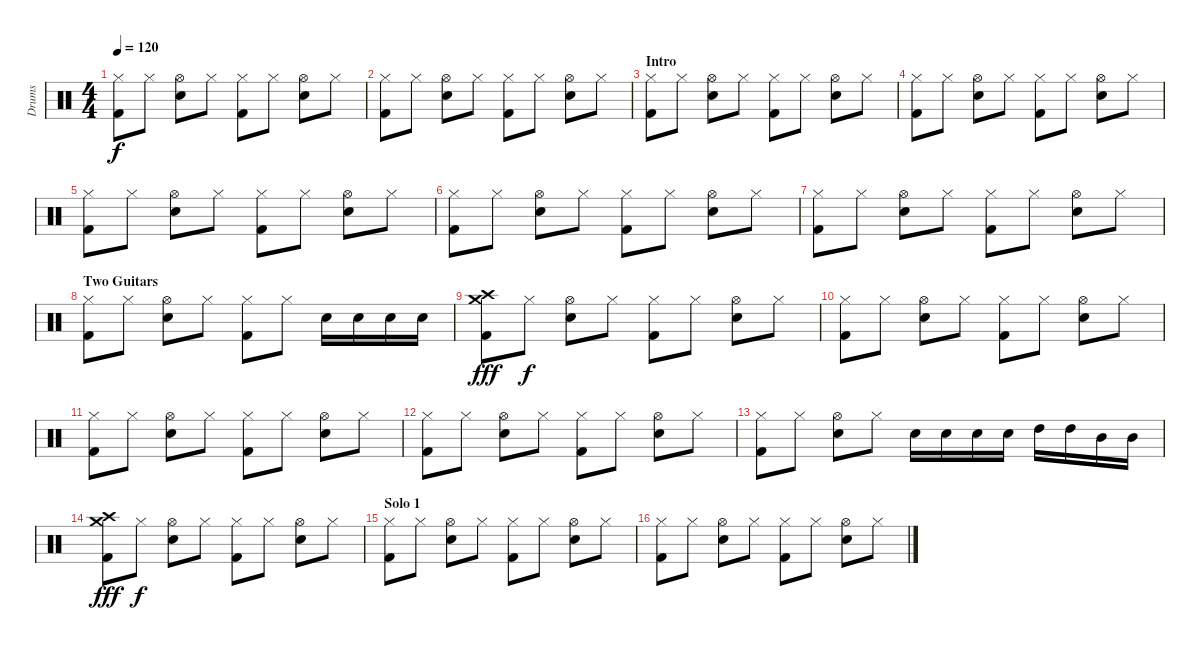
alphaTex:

\track ("Drums" "Drums") {instrument percussion}
\staff {score}
\articulation defaults
\ts (4 4)
\tempo 120
\clef neutral
\ks c
("Hi-Hat (closed)" "Kick (hit) 2").8{dy f} "Hi-Hat (closed)".8 ("Hi-Hat (open)" "Snare (hit) 2").8 "Hi-Hat (closed)".8 ("Hi-Hat (closed)" "Kick (hit) 2").8 "Hi-Hat (closed)".8 ("Hi-Hat (open)" "Snare (hit) 2").8 "Hi-Hat (closed)".8 |
("Hi-Hat (closed)" "Kick (hit) 2").8 "Hi-Hat (closed)".8 ("Hi-Hat (open)" "Snare (hit) 2").8 "Hi-Hat (closed)".8 ("Hi-Hat (closed)" "Kick (hit) 2").8 "Hi-Hat (closed)".8 ("Hi-Hat (open)" "Snare (hit) 2").8 "Hi-Hat (closed)".8 |
\section ("" "Intro")
("Hi-Hat (closed)" "Kick (hit) 2").8 "Hi-Hat (closed)".8 ("Hi-Hat (open)" "Snare (hit) 2").8 "Hi-Hat (closed)".8 ("Hi-Hat (closed)" "Kick (hit) 2").8 "Hi-Hat (closed)".8 ("Hi-Hat (open)" "Snare (hit) 2").8 "Hi-Hat (closed)".8 |
("Hi-Hat (closed)" "Kick (hit) 2").8 "Hi-Hat (closed)".8 ("Hi-Hat (open)" "Snare (hit) 2").8 "Hi-Hat (closed)".8 ("Hi-Hat (closed)" "Kick (hit) 2").8 "Hi-Hat (closed)".8 ("Hi-Hat (open)" "Snare (hit) 2").8 "Hi-Hat (closed)".8 |
("Hi-Hat (closed)" "Kick (hit) 2").8 "Hi-Hat (closed)".8 ("Hi-Hat (open)" "Snare (hit) 2").8 "Hi-Hat (closed)".8 ("Hi-Hat (closed)" "Kick (hit) 2").8 "Hi-Hat (closed)".8 ("Hi-Hat (open)" "Snare (hit) 2").8 "Hi-Hat (closed)".8 |
("Hi-Hat (closed)" "Kick (hit) 2").8 "Hi-Hat (closed)".8 ("Hi-Hat (open)" "Snare (hit) 2").8 "Hi-Hat (closed)".8 ("Hi-Hat (closed)" "Kick (hit) 2").8 "Hi-Hat (closed)".8 ("Hi-Hat (open)" "Snare (hit) 2").8 "Hi-Hat (closed)".8 |
("Hi-Hat (closed)" "Kick (hit) 2").8 "Hi-Hat (closed)".8 ("Hi-Hat (open)" "Snare (hit) 2").8 "Hi-Hat (closed)".8 ("Hi-Hat (closed)" "Kick (hit) 2").8 "Hi-Hat (closed)".8 ("Hi-Hat (open)" "Snare (hit) 2").8 "Hi-Hat (closed)".8 |
\section ("" "Two Guitars")
("Hi-Hat (closed)" "Kick (hit) 2").8 "Hi-Hat (closed)".8 ("Hi-Hat (open)" "Snare (hit) 2").8 "Hi-Hat (closed)".8 ("Hi-Hat (closed)" "Kick (hit) 2").8 "Hi-Hat (closed)".8 "Snare (hit) 2".16 "Snare (hit) 2".16 "Snare (hit) 2".16 "Snare (hit) 2".16 |
("Crash high (hit)" "Crash medium (hit)" "Kick (hit) 2").8{dy fff} "Hi-Hat (closed)".8{dy f} ("Hi-Hat (open)" "Snare (hit) 2").8 "Hi-Hat (closed)".8 ("Hi-Hat (closed)" "Kick (hit) 2").8 "Hi-Hat (closed)".8 ("Hi-Hat (open)" "Snare (hit) 2").8 "Hi-Hat (closed)".8 |
("Hi-Hat (closed)" "Kick (hit) 2").8 "Hi-Hat (closed)".8 ("Hi-Hat (open)" "Snare (hit) 2").8 "Hi-Hat (closed)".8 ("Hi-Hat (closed)" "Kick (hit) 2").8 "Hi-Hat (closed)".8 ("Hi-Hat (open)" "Snare (hit) 2").8 "Hi-Hat (closed)".8 |
("Hi-Hat (closed)" "Kick (hit) 2").8 "Hi-Hat (closed)".8 ("Hi-Hat (open)" "Snare (hit) 2").8 "Hi-Hat (closed)".8 ("Hi-Hat (closed)" "Kick (hit) 2").8 "Hi-Hat (closed)".8 ("Hi-Hat (open)" "Snare (hit) 2").8 "Hi-Hat (closed)".8 |
("Hi-Hat (closed)" "Kick (hit) 2").8 "Hi-Hat (closed)".8 ("Hi-Hat (open)" "Snare (hit) 2").8 "Hi-Hat (closed)".8 ("Hi-Hat (closed)" "Kick (hit) 2").8 "Hi-Hat (closed)".8 ("Hi-Hat (open)" "Snare (hit) 2").8 "Hi-Hat (closed)".8 |
("Hi-Hat (closed)" "Kick (hit) 2").8 "Hi-Hat (closed)".8 ("Hi-Hat (open)" "Snare (hit) 2").8 "Hi-Hat (closed)".8 "Snare (hit) 2".16 "Snare (hit) 2".16 "Snare (hit) 2".16 "Snare (hit) 2".16 "High Tom (hit)".16 "High Tom (hit)".16 "Mid Tom (hit)".16 "Mid Tom (hit)".16 |
("Crash high (hit)" "Crash medium (hit)" "Kick (hit) 2").8{dy fff} "Hi-Hat (closed)".8{dy f} ("Hi-Hat (open)" "Snare (hit) 2").8 "Hi-Hat (closed)".8 ("Hi-Hat (closed)" "Kick (hit) 2").8 "Hi-Hat (closed)".8 ("Hi-Hat (open)" "Snare (hit) 2").8 "Hi-Hat (closed)".8 |
\section ("" "Solo 1")
("Hi-Hat (closed)" "Kick (hit) 2").8 "Hi-Hat (closed)".8 ("Hi-Hat (open)" "Snare (hit) 2").8 "Hi-Hat (closed)".8 ("Hi-Hat (closed)" "Kick (hit) 2").8 "Hi-Hat (closed)".8 ("Hi-Hat (open)" "Snare (hit) 2").8 "Hi-Hat (closed)".8 |
("Hi-Hat (closed)" "Kick (hit) 2").8 "Hi-Hat (closed)".8 ("Hi-Hat (open)" "Snare (hit) 2").8 "Hi-Hat (closed)".8 ("Hi-Hat (closed)" "Kick (hit) 2").8 "Hi-Hat (closed)".8 ("Hi-Hat (open)" "Snare (hit) 2").8 "Hi-Hat (closed)".8
